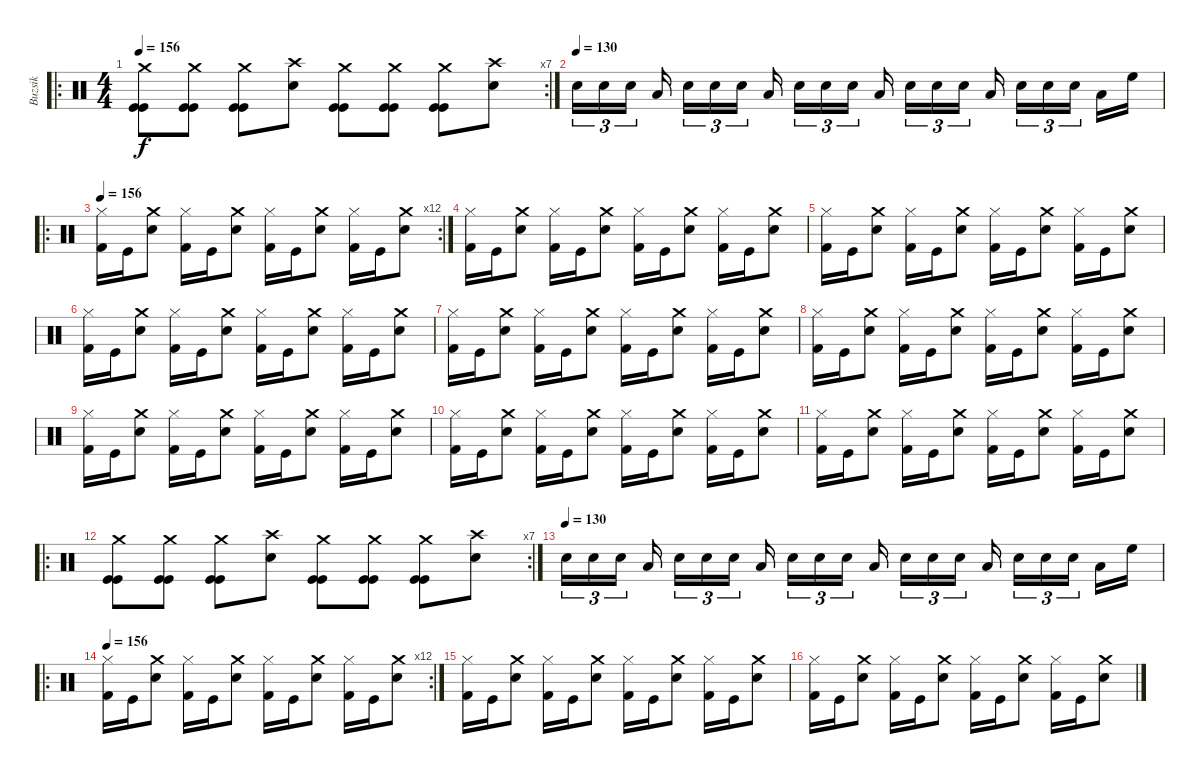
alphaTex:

\track ("Buzsik" "Buzsik") {instrument percussion}
\staff {score}
\articulation defaults
\ro
\rc 7
\ts (4 4)
\tempo 156
\clef neutral
\ks c
("Crash medium (hit)" "Kick (hit)" "Kick (hit)").8{dy f} ("Crash medium (hit)" "Kick (hit)" "Kick (hit)").8 ("Crash medium (hit)" "Kick (hit)" "Kick (hit)").8 ("Crash high (hit)" "Snare (hit) 2").8 ("Crash medium (hit)" "Kick (hit)" "Kick (hit)").8 ("Crash medium (hit)" "Kick (hit)" "Kick (hit)").8 ("Crash medium (hit)" "Kick (hit)" "Kick (hit)").8 ("Crash high (hit)" "Snare (hit) 2").8 |
\tempo (130)
"Electric Snare (hit)".16{tu (3 2)} "Electric Snare (hit)".16{tu (3 2)} "Electric Snare (hit)".16{tu (3 2)} "Low Tom (hit)".16 "Electric Snare (hit)".16{tu (3 2)} "Electric Snare (hit)".16{tu (3 2)} "Electric Snare (hit)".16{tu (3 2)} "Low Tom (hit)".16 "Electric Snare (hit)".16{tu (3 2)} "Electric Snare (hit)".16{tu (3 2)} "Electric Snare (hit)".16{tu (3 2)} "Low Tom (hit)".16 "Electric Snare (hit)".16{tu (3 2)} "Electric Snare (hit)".16{tu (3 2)} "Electric Snare (hit)".16{tu (3 2)} "Low Tom (hit)".16 "Snare (hit) 2".16{tu (3 2)} "Electric Snare (hit)".16{tu (3 2)} "Electric Snare (hit)".16{tu (3 2)} "Low Tom (hit)".16 "High Floor Tom (hit)".16 |
\ro
\rc 12
\tempo 156
("Hi-Hat (closed)" "Kick (hit) 2").16 "Kick (hit)".16 ("Crash medium (hit)" "Snare (hit) 2").8 ("Hi-Hat (closed)" "Kick (hit) 2").16 "Kick (hit)".16 ("Crash medium (hit)" "Snare (hit) 2").8 ("Hi-Hat (closed)" "Kick (hit) 2").16 "Kick (hit)".16 ("Crash medium (hit)" "Snare (hit) 2").8 ("Hi-Hat (closed)" "Kick (hit) 2").16 "Kick (hit)".16 ("Crash medium (hit)" "Snare (hit) 2").8 |
("Hi-Hat (closed)" "Kick (hit) 2").16 "Kick (hit)".16 ("Crash medium (hit)" "Snare (hit) 2").8 ("Hi-Hat (closed)" "Kick (hit) 2").16 "Kick (hit)".16 ("Crash medium (hit)" "Snare (hit) 2").8 ("Hi-Hat (closed)" "Kick (hit) 2").16 "Kick (hit)".16 ("Crash medium (hit)" "Snare (hit) 2").8 ("Hi-Hat (closed)" "Kick (hit) 2").16 "Kick (hit)".16 ("Crash medium (hit)" "Snare (hit) 2").8 |
("Hi-Hat (closed)" "Kick (hit) 2").16 "Kick (hit)".16 ("Crash medium (hit)" "Snare (hit) 2").8 ("Hi-Hat (closed)" "Kick (hit) 2").16 "Kick (hit)".16 ("Crash medium (hit)" "Snare (hit) 2").8 ("Hi-Hat (closed)" "Kick (hit) 2").16 "Kick (hit)".16 ("Crash medium (hit)" "Snare (hit) 2").8 ("Hi-Hat (closed)" "Kick (hit) 2").16 "Kick (hit)".16 ("Crash medium (hit)" "Snare (hit) 2").8 |
("Hi-Hat (closed)" "Kick (hit) 2").16 "Kick (hit)".16 ("Crash medium (hit)" "Snare (hit) 2").8 ("Hi-Hat (closed)" "Kick (hit) 2").16 "Kick (hit)".16 ("Crash medium (hit)" "Snare (hit) 2").8 ("Hi-Hat (closed)" "Kick (hit) 2").16 "Kick (hit)".16 ("Crash medium (hit)" "Snare (hit) 2").8 ("Hi-Hat (closed)" "Kick (hit) 2").16 "Kick (hit)".16 ("Crash medium (hit)" "Snare (hit) 2").8 |
("Hi-Hat (closed)" "Kick (hit) 2").16 "Kick (hit)".16 ("Crash medium (hit)" "Snare (hit) 2").8 ("Hi-Hat (closed)" "Kick (hit) 2").16 "Kick (hit)".16 ("Crash medium (hit)" "Snare (hit) 2").8 ("Hi-Hat (closed)" "Kick (hit) 2").16 "Kick (hit)".16 ("Crash medium (hit)" "Snare (hit) 2").8 ("Hi-Hat (closed)" "Kick (hit) 2").16 "Kick (hit)".16 ("Crash medium (hit)" "Snare (hit) 2").8 |
("Hi-Hat (closed)" "Kick (hit) 2").16 "Kick (hit)".16 ("Crash medium (hit)" "Snare (hit) 2").8 ("Hi-Hat (closed)" "Kick (hit) 2").16 "Kick (hit)".16 ("Crash medium (hit)" "Snare (hit) 2").8 ("Hi-Hat (closed)" "Kick (hit) 2").16 "Kick (hit)".16 ("Crash medium (hit)" "Snare (hit) 2").8 ("Hi-Hat (closed)" "Kick (hit) 2").16 "Kick (hit)".16 ("Crash medium (hit)" "Snare (hit) 2").8 |
("Hi-Hat (closed)" "Kick (hit) 2").16 "Kick (hit)".16 ("Crash medium (hit)" "Snare (hit) 2").8 ("Hi-Hat (closed)" "Kick (hit) 2").16 "Kick (hit)".16 ("Crash medium (hit)" "Snare (hit) 2").8 ("Hi-Hat (closed)" "Kick (hit) 2").16 "Kick (hit)".16 ("Crash medium (hit)" "Snare (hit) 2").8 ("Hi-Hat (closed)" "Kick (hit) 2").16 "Kick (hit)".16 ("Crash medium (hit)" "Snare (hit) 2").8 |
("Hi-Hat (closed)" "Kick (hit) 2").16 "Kick (hit)".16 ("Crash medium (hit)" "Snare (hit) 2").8 ("Hi-Hat (closed)" "Kick (hit) 2").16 "Kick (hit)".16 ("Crash medium (hit)" "Snare (hit) 2").8 ("Hi-Hat (closed)" "Kick (hit) 2").16 "Kick (hit)".16 ("Crash medium (hit)" "Snare (hit) 2").8 ("Hi-Hat (closed)" "Kick (hit) 2").16 "Kick (hit)".16 ("Crash medium (hit)" "Snare (hit) 2").8 |
("Hi-Hat (closed)" "Kick (hit) 2").16 "Kick (hit)".16 ("Crash medium (hit)" "Snare (hit) 2").8 ("Hi-Hat (closed)" "Kick (hit) 2").16 "Kick (hit)".16 ("Crash medium (hit)" "Snare (hit) 2").8 ("Hi-Hat (closed)" "Kick (hit) 2").16 "Kick (hit)".16 ("Crash medium (hit)" "Snare (hit) 2").8 ("Hi-Hat (closed)" "Kick (hit) 2").16 "Kick (hit)".16 ("Crash medium (hit)" "Snare (hit) 2").8 |
\ro
\rc 7
("Crash medium (hit)" "Kick (hit)" "Kick (hit)").8 ("Crash medium (hit)" "Kick (hit)" "Kick (hit)").8 ("Crash medium (hit)" "Kick (hit)" "Kick (hit)").8 ("Crash high (hit)" "Snare (hit) 2").8 ("Crash medium (hit)" "Kick (hit)" "Kick (hit)").8 ("Crash medium (hit)" "Kick (hit)" "Kick (hit)").8 ("Crash medium (hit)" "Kick (hit)" "Kick (hit)").8 ("Crash high (hit)" "Snare (hit) 2").8 |
\tempo (130)
"Electric Snare (hit)".16{tu (3 2)} "Electric Snare (hit)".16{tu (3 2)} "Electric Snare (hit)".16{tu (3 2)} "Low Tom (hit)".16 "Electric Snare (hit)".16{tu (3 2)} "Electric Snare (hit)".16{tu (3 2)} "Electric Snare (hit)".16{tu (3 2)} "Low Tom (hit)".16 "Electric Snare (hit)".16{tu (3 2)} "Electric Snare (hit)".16{tu (3 2)} "Electric Snare (hit)".16{tu (3 2)} "Low Tom (hit)".16 "Electric Snare (hit)".16{tu (3 2)} "Electric Snare (hit)".16{tu (3 2)} "Electric Snare (hit)".16{tu (3 2)} "Low Tom (hit)".16 "Snare (hit) 2".16{tu (3 2)} "Electric Snare (hit)".16{tu (3 2)} "Electric Snare (hit)".16{tu (3 2)} "Low Tom (hit)".16 "High Floor Tom (hit)".16 |
\ro
\rc 12
\tempo 156
("Hi-Hat (closed)" "Kick (hit) 2").16 "Kick (hit)".16 ("Crash medium (hit)" "Snare (hit) 2").8 ("Hi-Hat (closed)" "Kick (hit) 2").16 "Kick (hit)".16 ("Crash medium (hit)" "Snare (hit) 2").8 ("Hi-Hat (closed)" "Kick (hit) 2").16 "Kick (hit)".16 ("Crash medium (hit)" "Snare (hit) 2").8 ("Hi-Hat (closed)" "Kick (hit) 2").16 "Kick (hit)".16 ("Crash medium (hit)" "Snare (hit) 2").8 |
("Hi-Hat (closed)" "Kick (hit) 2").16 "Kick (hit)".16 ("Crash medium (hit)" "Snare (hit) 2").8 ("Hi-Hat (closed)" "Kick (hit) 2").16 "Kick (hit)".16 ("Crash medium (hit)" "Snare (hit) 2").8 ("Hi-Hat (closed)" "Kick (hit) 2").16 "Kick (hit)".16 ("Crash medium (hit)" "Snare (hit) 2").8 ("Hi-Hat (closed)" "Kick (hit) 2").16 "Kick (hit)".16 ("Crash medium (hit)" "Snare (hit) 2").8 |
("Hi-Hat (closed)" "Kick (hit) 2").16 "Kick (hit)".16 ("Crash medium (hit)" "Snare (hit) 2").8 ("Hi-Hat (closed)" "Kick (hit) 2").16 "Kick (hit)".16 ("Crash medium (hit)" "Snare (hit) 2").8 ("Hi-Hat (closed)" "Kick (hit) 2").16 "Kick (hit)".16 ("Crash medium (hit)" "Snare (hit) 2").8 ("Hi-Hat (closed)" "Kick (hit) 2").16 "Kick (hit)".16 ("Crash medium (hit)" "Snare (hit) 2").8
